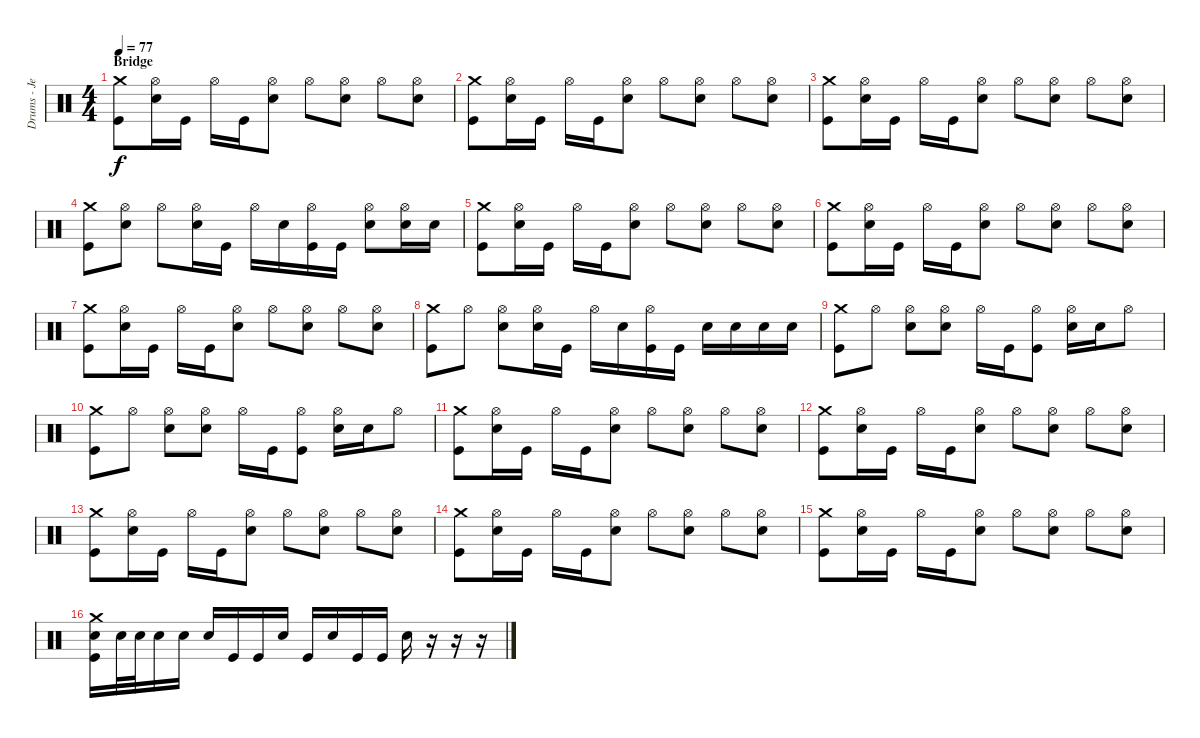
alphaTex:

\track ("Drums - Jeff" "Drums - Je") {instrument percussion}
\staff {score}
\articulation defaults
\ts (4 4)
\section ("" "Bridge")
\tempo 77
\clef neutral
\ks c
("Crash medium (hit)" "Kick (hit)").8{dy f} ("Hi-Hat (open)" "Electric Snare (hit)").16 "Kick (hit)".16 "Hi-Hat (open)".16 "Kick (hit)".16 ("Hi-Hat (open)" "Electric Snare (hit)").8 "Hi-Hat (open)".8 ("Hi-Hat (open)" "Electric Snare (hit)").8 "Hi-Hat (open)".8 ("Hi-Hat (open)" "Electric Snare (hit)").8 |
("Crash medium (hit)" "Kick (hit)").8 ("Hi-Hat (open)" "Electric Snare (hit)").16 "Kick (hit)".16 "Hi-Hat (open)".16 "Kick (hit)".16 ("Hi-Hat (open)" "Electric Snare (hit)").8 "Hi-Hat (open)".8 ("Hi-Hat (open)" "Electric Snare (hit)").8 "Hi-Hat (open)".8 ("Hi-Hat (open)" "Electric Snare (hit)").8 |
("Crash medium (hit)" "Kick (hit)").8 ("Hi-Hat (open)" "Electric Snare (hit)").16 "Kick (hit)".16 "Hi-Hat (open)".16 "Kick (hit)".16 ("Hi-Hat (open)" "Electric Snare (hit)").8 "Hi-Hat (open)".8 ("Hi-Hat (open)" "Electric Snare (hit)").8 "Hi-Hat (open)".8 ("Hi-Hat (open)" "Electric Snare (hit)").8 |
("Crash medium (hit)" "Kick (hit)").8 ("Hi-Hat (open)" "Electric Snare (hit)").8 "Hi-Hat (open)".8 ("Hi-Hat (open)" "Electric Snare (hit)").16 "Kick (hit)".16 "Hi-Hat (open)".16 "Electric Snare (hit)".16 ("Hi-Hat (open)" "Kick (hit)").16 "Kick (hit)".16 ("Hi-Hat (open)" "Electric Snare (hit)").8 ("Hi-Hat (open)" "Electric Snare (hit)").16 "Electric Snare (hit)".16 |
("Crash medium (hit)" "Kick (hit)").8 ("Hi-Hat (open)" "Electric Snare (hit)").16 "Kick (hit)".16 "Hi-Hat (open)".16 "Kick (hit)".16 ("Hi-Hat (open)" "Electric Snare (hit)").8 "Hi-Hat (open)".8 ("Hi-Hat (open)" "Electric Snare (hit)").8 "Hi-Hat (open)".8 ("Hi-Hat (open)" "Electric Snare (hit)").8 |
("Crash medium (hit)" "Kick (hit)").8 ("Hi-Hat (open)" "Electric Snare (hit)").16 "Kick (hit)".16 "Hi-Hat (open)".16 "Kick (hit)".16 ("Hi-Hat (open)" "Electric Snare (hit)").8 "Hi-Hat (open)".8 ("Hi-Hat (open)" "Electric Snare (hit)").8 "Hi-Hat (open)".8 ("Hi-Hat (open)" "Electric Snare (hit)").8 |
("Crash medium (hit)" "Kick (hit)").8 ("Hi-Hat (open)" "Electric Snare (hit)").16 "Kick (hit)".16 "Hi-Hat (open)".16 "Kick (hit)".16 ("Hi-Hat (open)" "Electric Snare (hit)").8 "Hi-Hat (open)".8 ("Hi-Hat (open)" "Electric Snare (hit)").8 "Hi-Hat (open)".8 ("Hi-Hat (open)" "Electric Snare (hit)").8 |
("Crash medium (hit)" "Kick (hit)").8 "Hi-Hat (open)".8 ("Hi-Hat (open)" "Electric Snare (hit)").8 ("Hi-Hat (open)" "Electric Snare (hit)").16 "Kick (hit)".16 "Hi-Hat (open)".16 "Electric Snare (hit)".16 ("Hi-Hat (open)" "Kick (hit)").16 "Kick (hit)".16 "Electric Snare (hit)".16 "Electric Snare (hit)".16 "Electric Snare (hit)".16 "Electric Snare (hit)".16 |
("Crash medium (hit)" "Kick (hit)").8 "Hi-Hat (open)".8 ("Hi-Hat (open)" "Electric Snare (hit)").8 ("Hi-Hat (open)" "Electric Snare (hit)").8 "Hi-Hat (open)".16 "Kick (hit)".16 ("Hi-Hat (open)" "Kick (hit)").8 ("Hi-Hat (open)" "Electric Snare (hit)").16 "Electric Snare (hit)".16 "Hi-Hat (open)".8 |
("Crash medium (hit)" "Kick (hit)").8 "Hi-Hat (open)".8 ("Hi-Hat (open)" "Electric Snare (hit)").8 ("Hi-Hat (open)" "Electric Snare (hit)").8 "Hi-Hat (open)".16 "Kick (hit)".16 ("Hi-Hat (open)" "Kick (hit)").8 ("Hi-Hat (open)" "Electric Snare (hit)").16 "Electric Snare (hit)".16 "Hi-Hat (open)".8 |
("Crash medium (hit)" "Kick (hit)").8 ("Hi-Hat (open)" "Electric Snare (hit)").16 "Kick (hit)".16 "Hi-Hat (open)".16 "Kick (hit)".16 ("Hi-Hat (open)" "Electric Snare (hit)").8 "Hi-Hat (open)".8 ("Hi-Hat (open)" "Electric Snare (hit)").8 "Hi-Hat (open)".8 ("Hi-Hat (open)" "Electric Snare (hit)").8 |
("Crash medium (hit)" "Kick (hit)").8 ("Hi-Hat (open)" "Electric Snare (hit)").16 "Kick (hit)".16 "Hi-Hat (open)".16 "Kick (hit)".16 ("Hi-Hat (open)" "Electric Snare (hit)").8 "Hi-Hat (open)".8 ("Hi-Hat (open)" "Electric Snare (hit)").8 "Hi-Hat (open)".8 ("Hi-Hat (open)" "Electric Snare (hit)").8 |
("Crash medium (hit)" "Kick (hit)").8 ("Hi-Hat (open)" "Electric Snare (hit)").16 "Kick (hit)".16 "Hi-Hat (open)".16 "Kick (hit)".16 ("Hi-Hat (open)" "Electric Snare (hit)").8 "Hi-Hat (open)".8 ("Hi-Hat (open)" "Electric Snare (hit)").8 "Hi-Hat (open)".8 ("Hi-Hat (open)" "Electric Snare (hit)").8 |
("Crash medium (hit)" "Kick (hit)").8 ("Hi-Hat (open)" "Electric Snare (hit)").16 "Kick (hit)".16 "Hi-Hat (open)".16 "Kick (hit)".16 ("Hi-Hat (open)" "Electric Snare (hit)").8 "Hi-Hat (open)".8 ("Hi-Hat (open)" "Electric Snare (hit)").8 "Hi-Hat (open)".8 ("Hi-Hat (open)" "Electric Snare (hit)").8 |
("Crash medium (hit)" "Kick (hit)").8 ("Hi-Hat (open)" "Electric Snare (hit)").16 "Kick (hit)".16 "Hi-Hat (open)".16 "Kick (hit)".16 ("Hi-Hat (open)" "Electric Snare (hit)").8 "Hi-Hat (open)".8 ("Hi-Hat (open)" "Electric Snare (hit)").8 "Hi-Hat (open)".8 ("Hi-Hat (open)" "Electric Snare (hit)").8 |
("Crash medium (hit)" "Electric Snare (hit)" "Kick (hit)").16 "Electric Snare (hit)".32 "Electric Snare (hit)".32 "Electric Snare (hit)".16 "Electric Snare (hit)".16 "Electric Snare (hit)".16 "Kick (hit)".16 "Kick (hit)".16 "Electric Snare (hit)".16 "Kick (hit)".16 "Electric Snare (hit)".16 "Kick (hit)".16 "Kick (hit)".16 "Electric Snare (hit)".16 r.16 r.16 r.16
